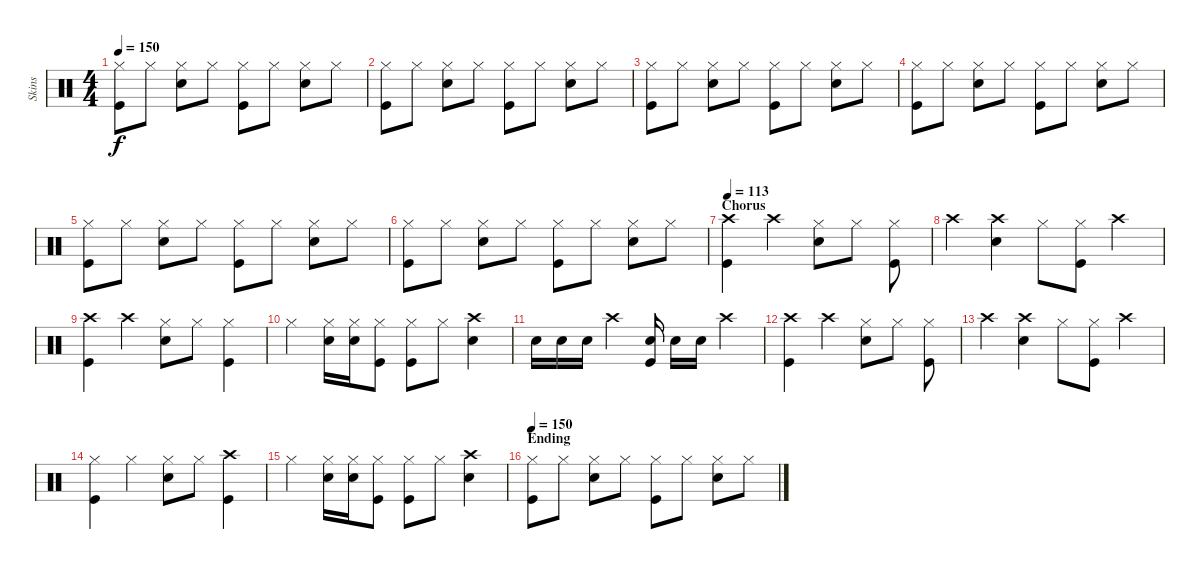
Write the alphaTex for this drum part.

\track ("Skins" "Skins") {instrument percussion}
\staff {score}
\articulation defaults
\ts (4 4)
\tempo 150
\clef neutral
\ks c
("Hi-Hat (closed)" "Kick (hit)").8{dy f} "Hi-Hat (closed)".8 ("Hi-Hat (closed)" "Snare (hit) 2").8 "Hi-Hat (closed)".8 ("Hi-Hat (closed)" "Kick (hit)").8 "Hi-Hat (closed)".8 ("Hi-Hat (closed)" "Snare (hit) 2").8 "Hi-Hat (closed)".8 |
("Hi-Hat (closed)" "Kick (hit)").8 "Hi-Hat (closed)".8 ("Hi-Hat (closed)" "Snare (hit) 2").8 "Hi-Hat (closed)".8 ("Hi-Hat (closed)" "Kick (hit)").8 "Hi-Hat (closed)".8 ("Hi-Hat (closed)" "Snare (hit) 2").8 "Hi-Hat (closed)".8 |
("Hi-Hat (closed)" "Kick (hit)").8 "Hi-Hat (closed)".8 ("Hi-Hat (closed)" "Snare (hit) 2").8 "Hi-Hat (closed)".8 ("Hi-Hat (closed)" "Kick (hit)").8 "Hi-Hat (closed)".8 ("Hi-Hat (closed)" "Snare (hit) 2").8 "Hi-Hat (closed)".8 |
("Hi-Hat (closed)" "Kick (hit)").8 "Hi-Hat (closed)".8 ("Hi-Hat (closed)" "Snare (hit) 2").8 "Hi-Hat (closed)".8 ("Hi-Hat (closed)" "Kick (hit)").8 "Hi-Hat (closed)".8 ("Hi-Hat (closed)" "Snare (hit) 2").8 "Hi-Hat (closed)".8 |
("Hi-Hat (closed)" "Kick (hit)").8 "Hi-Hat (closed)".8 ("Hi-Hat (closed)" "Snare (hit) 2").8 "Hi-Hat (closed)".8 ("Hi-Hat (closed)" "Kick (hit)").8 "Hi-Hat (closed)".8 ("Hi-Hat (closed)" "Snare (hit) 2").8 "Hi-Hat (closed)".8 |
("Hi-Hat (closed)" "Kick (hit)").8 "Hi-Hat (closed)".8 ("Hi-Hat (closed)" "Snare (hit) 2").8 "Hi-Hat (closed)".8 ("Hi-Hat (closed)" "Kick (hit)").8 "Hi-Hat (closed)".8 ("Hi-Hat (closed)" "Snare (hit) 2").8 "Hi-Hat (closed)".8 |
\section ("" "Chorus")
\tempo 113
("Crash high (hit)" "Kick (hit)").4 "Crash high (hit)".4 ("Hi-Hat (closed)" "Snare (hit) 2").8 "Hi-Hat (closed)".8 ("Hi-Hat (closed)" "Kick (hit)").8 |
"Crash high (hit)".4 ("Crash high (hit)" "Snare (hit) 2").4 "Hi-Hat (closed)".8 ("Hi-Hat (closed)" "Kick (hit)").8 "Crash high (hit)".4 |
("Crash high (hit)" "Kick (hit)").4 "Crash high (hit)".4 ("Hi-Hat (closed)" "Snare (hit) 2").8 "Hi-Hat (closed)".8 ("Hi-Hat (closed)" "Kick (hit)").4 |
"Hi-Hat (closed)".4 ("Hi-Hat (closed)" "Snare (hit) 2").16 ("Hi-Hat (closed)" "Snare (hit) 2").16 ("Hi-Hat (closed)" "Kick (hit)").8 ("Hi-Hat (closed)" "Kick (hit)").8 "Hi-Hat (closed)".8 ("Crash high (hit)" "Snare (hit) 2").4 |
"Snare (hit) 2".16 "Snare (hit) 2".16 "Snare (hit) 2".16 "Crash high (hit)".4 ("Snare (hit) 2" "Kick (hit)").16 "Snare (hit) 2".16 "Snare (hit) 2".16 "Crash high (hit)".4 |
("Crash high (hit)" "Kick (hit)").4 "Crash high (hit)".4 ("Hi-Hat (closed)" "Snare (hit) 2").8 "Hi-Hat (closed)".8 ("Hi-Hat (closed)" "Kick (hit)").8 |
"Crash high (hit)".4 ("Crash high (hit)" "Snare (hit) 2").4 "Hi-Hat (closed)".8 ("Hi-Hat (closed)" "Kick (hit)").8 "Crash high (hit)".4 |
("Hi-Hat (closed)" "Kick (hit)").4 "Hi-Hat (closed)".4 ("Hi-Hat (closed)" "Snare (hit) 2").8 "Hi-Hat (closed)".8 ("Crash high (hit)" "Kick (hit)").4 |
"Hi-Hat (closed)".4 ("Hi-Hat (closed)" "Snare (hit) 2").16 ("Hi-Hat (closed)" "Snare (hit) 2").16 ("Hi-Hat (closed)" "Kick (hit)").8 ("Hi-Hat (closed)" "Kick (hit)").8 "Hi-Hat (closed)".8 ("Crash high (hit)" "Snare (hit) 2").4 |
\section ("" "Ending")
\tempo 150
("Hi-Hat (closed)" "Kick (hit)").8 "Hi-Hat (closed)".8 ("Hi-Hat (closed)" "Snare (hit) 2").8 "Hi-Hat (closed)".8 ("Hi-Hat (closed)" "Kick (hit)").8 "Hi-Hat (closed)".8 ("Hi-Hat (closed)" "Snare (hit) 2").8 "Hi-Hat (closed)".8
